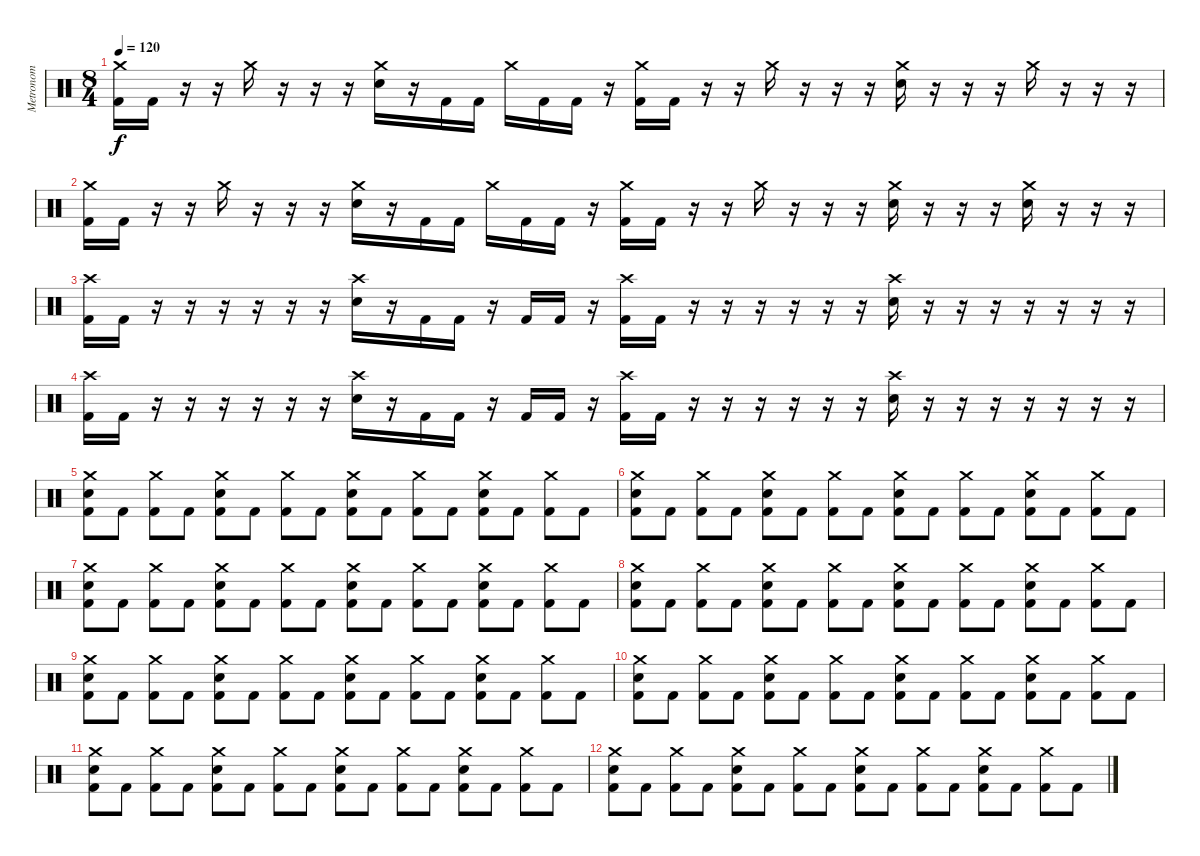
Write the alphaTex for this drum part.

\track ("Metronom" "Metronom") {instrument percussion}
\staff
\articulation defaults
\ts (8 4)
\tempo 120
\clef neutral
\ks c
("Crash medium (hit)" "Kick (hit) 2").16{dy f} "Kick (hit) 2".16 r.16 r.16 "Crash medium (hit)".16 r.16 r.16 r.16 ("Crash medium (hit)" "Electric Snare (hit)").16 r.16 "Kick (hit) 2".16 "Kick (hit) 2".16 "Crash medium (hit)".16 "Kick (hit) 2".16 "Kick (hit) 2".16 r.16 ("Crash medium (hit)" "Kick (hit) 2").16 "Kick (hit) 2".16 r.16 r.16 "Crash medium (hit)".16 r.16 r.16 r.16 ("Crash medium (hit)" "Electric Snare (hit)").16 r.16 r.16 r.16 "Crash medium (hit)".16 r.16 r.16 r.16 |
("Crash medium (hit)" "Kick (hit) 2").16 "Kick (hit) 2".16 r.16 r.16 "Crash medium (hit)".16 r.16 r.16 r.16 ("Crash medium (hit)" "Electric Snare (hit)").16 r.16 "Kick (hit) 2".16 "Kick (hit) 2".16 "Crash medium (hit)".16 "Kick (hit) 2".16 "Kick (hit) 2".16 r.16 ("Crash medium (hit)" "Kick (hit) 2").16 "Kick (hit) 2".16 r.16 r.16 "Crash medium (hit)".16 r.16 r.16 r.16 ("Crash medium (hit)" "Electric Snare (hit)").16 r.16 r.16 r.16 ("Crash medium (hit)" "Electric Snare (hit)").16 r.16 r.16 r.16 |
("Crash high (hit)" "Kick (hit) 2").16 "Kick (hit) 2".16 r.16 r.16 r.16 r.16 r.16 r.16 ("Crash high (hit)" "Electric Snare (hit)").16 r.16 "Kick (hit) 2".16 "Kick (hit) 2".16 r.16 "Kick (hit) 2".16 "Kick (hit) 2".16 r.16 ("Crash high (hit)" "Kick (hit) 2").16 "Kick (hit) 2".16 r.16 r.16 r.16 r.16 r.16 r.16 ("Crash high (hit)" "Electric Snare (hit)").16 r.16 r.16 r.16 r.16 r.16 r.16 r.16 |
("Crash high (hit)" "Kick (hit) 2").16 "Kick (hit) 2".16 r.16 r.16 r.16 r.16 r.16 r.16 ("Crash high (hit)" "Electric Snare (hit)").16 r.16 "Kick (hit) 2".16 "Kick (hit) 2".16 r.16 "Kick (hit) 2".16 "Kick (hit) 2".16 r.16 ("Crash high (hit)" "Kick (hit) 2").16 "Kick (hit) 2".16 r.16 r.16 r.16 r.16 r.16 r.16 ("Crash high (hit)" "Electric Snare (hit)").16 r.16 r.16 r.16 r.16 r.16 r.16 r.16 |
("Crash medium (hit)" "Electric Snare (hit)" "Kick (hit) 2").8 "Kick (hit) 2".8 ("Crash medium (hit)" "Kick (hit) 2").8 "Kick (hit) 2".8 ("Crash medium (hit)" "Electric Snare (hit)" "Kick (hit) 2").8 "Kick (hit) 2".8 ("Crash medium (hit)" "Kick (hit) 2").8 "Kick (hit) 2".8 ("Crash medium (hit)" "Electric Snare (hit)" "Kick (hit) 2").8 "Kick (hit) 2".8 ("Crash medium (hit)" "Kick (hit) 2").8 "Kick (hit) 2".8 ("Crash medium (hit)" "Electric Snare (hit)" "Kick (hit) 2").8 "Kick (hit) 2".8 ("Crash medium (hit)" "Kick (hit) 2").8 "Kick (hit) 2".8 |
("Crash medium (hit)" "Electric Snare (hit)" "Kick (hit) 2").8 "Kick (hit) 2".8 ("Crash medium (hit)" "Kick (hit) 2").8 "Kick (hit) 2".8 ("Crash medium (hit)" "Electric Snare (hit)" "Kick (hit) 2").8 "Kick (hit) 2".8 ("Crash medium (hit)" "Kick (hit) 2").8 "Kick (hit) 2".8 ("Crash medium (hit)" "Electric Snare (hit)" "Kick (hit) 2").8 "Kick (hit) 2".8 ("Crash medium (hit)" "Kick (hit) 2").8 "Kick (hit) 2".8 ("Crash medium (hit)" "Electric Snare (hit)" "Kick (hit) 2").8 "Kick (hit) 2".8 ("Crash medium (hit)" "Kick (hit) 2").8 "Kick (hit) 2".8 |
("Crash medium (hit)" "Electric Snare (hit)" "Kick (hit) 2").8 "Kick (hit) 2".8 ("Crash medium (hit)" "Kick (hit) 2").8 "Kick (hit) 2".8 ("Crash medium (hit)" "Electric Snare (hit)" "Kick (hit) 2").8 "Kick (hit) 2".8 ("Crash medium (hit)" "Kick (hit) 2").8 "Kick (hit) 2".8 ("Crash medium (hit)" "Electric Snare (hit)" "Kick (hit) 2").8 "Kick (hit) 2".8 ("Crash medium (hit)" "Kick (hit) 2").8 "Kick (hit) 2".8 ("Crash medium (hit)" "Electric Snare (hit)" "Kick (hit) 2").8 "Kick (hit) 2".8 ("Crash medium (hit)" "Kick (hit) 2").8 "Kick (hit) 2".8 |
("Crash medium (hit)" "Electric Snare (hit)" "Kick (hit) 2").8 "Kick (hit) 2".8 ("Crash medium (hit)" "Kick (hit) 2").8 "Kick (hit) 2".8 ("Crash medium (hit)" "Electric Snare (hit)" "Kick (hit) 2").8 "Kick (hit) 2".8 ("Crash medium (hit)" "Kick (hit) 2").8 "Kick (hit) 2".8 ("Crash medium (hit)" "Electric Snare (hit)" "Kick (hit) 2").8 "Kick (hit) 2".8 ("Crash medium (hit)" "Kick (hit) 2").8 "Kick (hit) 2".8 ("Crash medium (hit)" "Electric Snare (hit)" "Kick (hit) 2").8 "Kick (hit) 2".8 ("Crash medium (hit)" "Kick (hit) 2").8 "Kick (hit) 2".8 |
("Crash medium (hit)" "Electric Snare (hit)" "Kick (hit) 2").8 "Kick (hit) 2".8 ("Crash medium (hit)" "Kick (hit) 2").8 "Kick (hit) 2".8 ("Crash medium (hit)" "Electric Snare (hit)" "Kick (hit) 2").8 "Kick (hit) 2".8 ("Crash medium (hit)" "Kick (hit) 2").8 "Kick (hit) 2".8 ("Crash medium (hit)" "Electric Snare (hit)" "Kick (hit) 2").8 "Kick (hit) 2".8 ("Crash medium (hit)" "Kick (hit) 2").8 "Kick (hit) 2".8 ("Crash medium (hit)" "Electric Snare (hit)" "Kick (hit) 2").8 "Kick (hit) 2".8 ("Crash medium (hit)" "Kick (hit) 2").8 "Kick (hit) 2".8 |
("Crash medium (hit)" "Electric Snare (hit)" "Kick (hit) 2").8 "Kick (hit) 2".8 ("Crash medium (hit)" "Kick (hit) 2").8 "Kick (hit) 2".8 ("Crash medium (hit)" "Electric Snare (hit)" "Kick (hit) 2").8 "Kick (hit) 2".8 ("Crash medium (hit)" "Kick (hit) 2").8 "Kick (hit) 2".8 ("Crash medium (hit)" "Electric Snare (hit)" "Kick (hit) 2").8 "Kick (hit) 2".8 ("Crash medium (hit)" "Kick (hit) 2").8 "Kick (hit) 2".8 ("Crash medium (hit)" "Electric Snare (hit)" "Kick (hit) 2").8 "Kick (hit) 2".8 ("Crash medium (hit)" "Kick (hit) 2").8 "Kick (hit) 2".8 |
("Crash medium (hit)" "Electric Snare (hit)" "Kick (hit) 2").8 "Kick (hit) 2".8 ("Crash medium (hit)" "Kick (hit) 2").8 "Kick (hit) 2".8 ("Crash medium (hit)" "Electric Snare (hit)" "Kick (hit) 2").8 "Kick (hit) 2".8 ("Crash medium (hit)" "Kick (hit) 2").8 "Kick (hit) 2".8 ("Crash medium (hit)" "Electric Snare (hit)" "Kick (hit) 2").8 "Kick (hit) 2".8 ("Crash medium (hit)" "Kick (hit) 2").8 "Kick (hit) 2".8 ("Crash medium (hit)" "Electric Snare (hit)" "Kick (hit) 2").8 "Kick (hit) 2".8 ("Crash medium (hit)" "Kick (hit) 2").8 "Kick (hit) 2".8 |
("Crash medium (hit)" "Electric Snare (hit)" "Kick (hit) 2").8 "Kick (hit) 2".8 ("Crash medium (hit)" "Kick (hit) 2").8 "Kick (hit) 2".8 ("Crash medium (hit)" "Electric Snare (hit)" "Kick (hit) 2").8 "Kick (hit) 2".8 ("Crash medium (hit)" "Kick (hit) 2").8 "Kick (hit) 2".8 ("Crash medium (hit)" "Electric Snare (hit)" "Kick (hit) 2").8 "Kick (hit) 2".8 ("Crash medium (hit)" "Kick (hit) 2").8 "Kick (hit) 2".8 ("Crash medium (hit)" "Electric Snare (hit)" "Kick (hit) 2").8 "Kick (hit) 2".8 ("Crash medium (hit)" "Kick (hit) 2").8 "Kick (hit) 2".8
